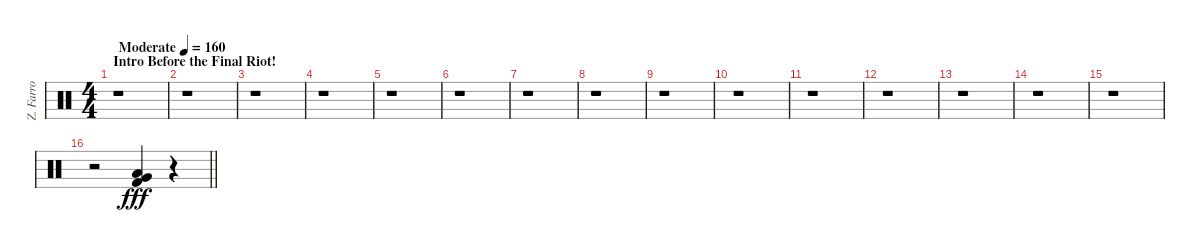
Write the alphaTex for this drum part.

\track ("Z. Farro" "Z. Farro") {instrument percussion}
\staff {score}
\articulation defaults
\ts (4 4)
\section ("" "Intro Before the Final Riot!")
\tempo (160 "Moderate")
\clef neutral
\ks c
r.1{dy fff} |
r.1 |
r.1 |
r.1 |
r.1 |
r.1 |
r.1 |
r.1 |
r.1 |
r.1 |
r.1 |
r.1 |
r.1 |
r.1 |
r.1 |
\barLineRight lightlight
r.2 ("Low Tom (hit)" "Very Low Tom (hit)" "Kick (hit) 2").4 r.4
